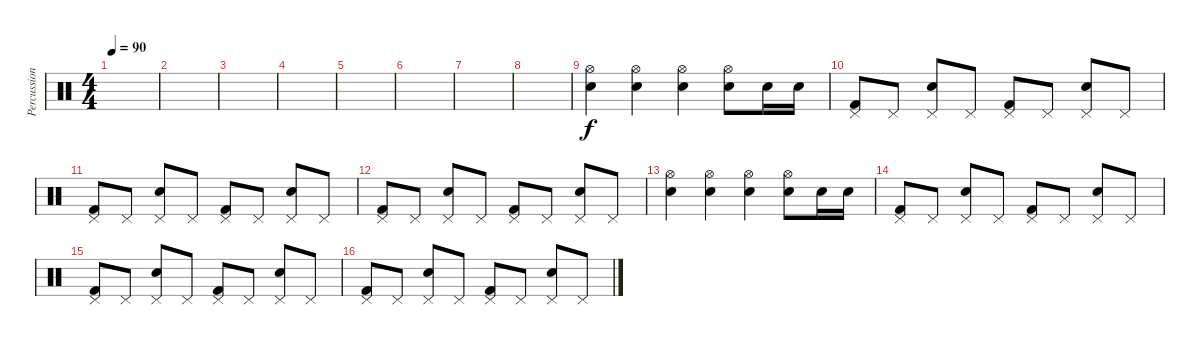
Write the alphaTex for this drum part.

\track ("Percussion" "Percussion") {instrument percussion}
\staff {score}
\articulation defaults
\ts (4 4)
\tempo 90
\clef neutral
\ks c
|
|
|
|
|
|
|
|
("Hi-Hat (open)" "Electric Snare (hit)").4 ("Hi-Hat (open)" "Electric Snare (hit)").4 ("Hi-Hat (open)" "Electric Snare (hit)").4 ("Hi-Hat (open)" "Electric Snare (hit)").8 "Electric Snare (hit)".16 "Electric Snare (hit)".16 |
("Pedal Hi-Hat (hit)" "Kick (hit) 2").8 "Pedal Hi-Hat (hit)".8 ("Pedal Hi-Hat (hit)" "Electric Snare (hit)").8 "Pedal Hi-Hat (hit)".8 ("Pedal Hi-Hat (hit)" "Kick (hit) 2").8 "Pedal Hi-Hat (hit)".8 ("Pedal Hi-Hat (hit)" "Electric Snare (hit)").8 "Pedal Hi-Hat (hit)".8 |
("Pedal Hi-Hat (hit)" "Kick (hit) 2").8 "Pedal Hi-Hat (hit)".8 ("Pedal Hi-Hat (hit)" "Electric Snare (hit)").8 "Pedal Hi-Hat (hit)".8 ("Pedal Hi-Hat (hit)" "Kick (hit) 2").8 "Pedal Hi-Hat (hit)".8 ("Pedal Hi-Hat (hit)" "Electric Snare (hit)").8 "Pedal Hi-Hat (hit)".8 |
("Pedal Hi-Hat (hit)" "Kick (hit) 2").8 "Pedal Hi-Hat (hit)".8 ("Pedal Hi-Hat (hit)" "Electric Snare (hit)").8 "Pedal Hi-Hat (hit)".8 ("Pedal Hi-Hat (hit)" "Kick (hit) 2").8 "Pedal Hi-Hat (hit)".8 ("Pedal Hi-Hat (hit)" "Electric Snare (hit)").8 "Pedal Hi-Hat (hit)".8 |
("Hi-Hat (open)" "Electric Snare (hit)").4 ("Hi-Hat (open)" "Electric Snare (hit)").4 ("Hi-Hat (open)" "Electric Snare (hit)").4 ("Hi-Hat (open)" "Electric Snare (hit)").8 "Electric Snare (hit)".16 "Electric Snare (hit)".16 |
("Pedal Hi-Hat (hit)" "Kick (hit) 2").8 "Pedal Hi-Hat (hit)".8 ("Pedal Hi-Hat (hit)" "Electric Snare (hit)").8 "Pedal Hi-Hat (hit)".8 ("Pedal Hi-Hat (hit)" "Kick (hit) 2").8 "Pedal Hi-Hat (hit)".8 ("Pedal Hi-Hat (hit)" "Electric Snare (hit)").8 "Pedal Hi-Hat (hit)".8 |
("Pedal Hi-Hat (hit)" "Kick (hit) 2").8 "Pedal Hi-Hat (hit)".8 ("Pedal Hi-Hat (hit)" "Electric Snare (hit)").8 "Pedal Hi-Hat (hit)".8 ("Pedal Hi-Hat (hit)" "Kick (hit) 2").8 "Pedal Hi-Hat (hit)".8 ("Pedal Hi-Hat (hit)" "Electric Snare (hit)").8 "Pedal Hi-Hat (hit)".8 |
("Pedal Hi-Hat (hit)" "Kick (hit) 2").8 "Pedal Hi-Hat (hit)".8 ("Pedal Hi-Hat (hit)" "Electric Snare (hit)").8 "Pedal Hi-Hat (hit)".8 ("Pedal Hi-Hat (hit)" "Kick (hit) 2").8 "Pedal Hi-Hat (hit)".8 ("Pedal Hi-Hat (hit)" "Electric Snare (hit)").8 "Pedal Hi-Hat (hit)".8
